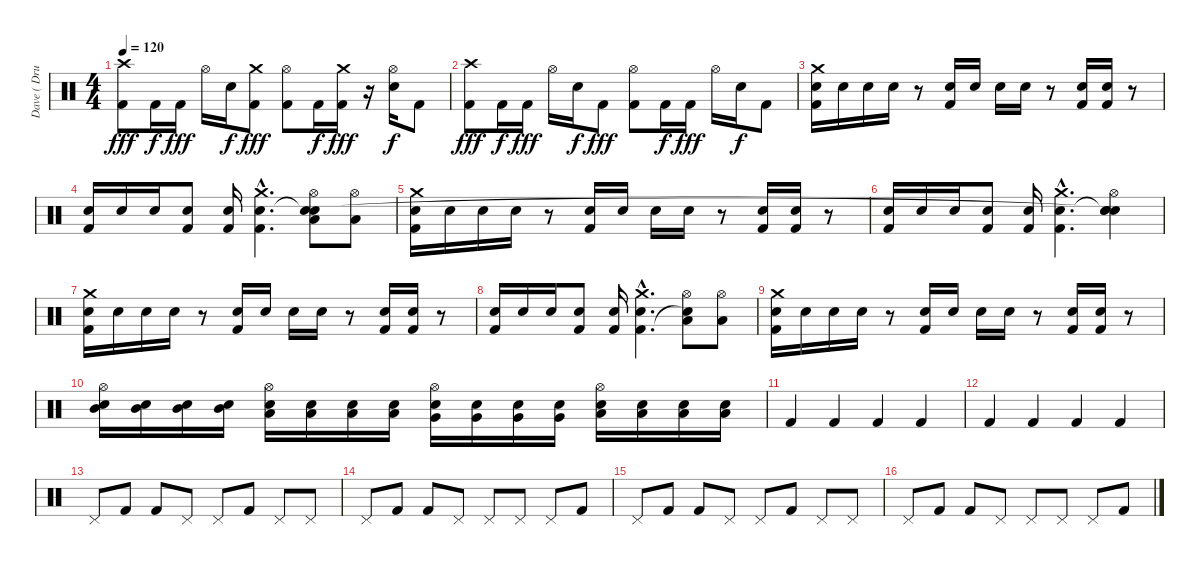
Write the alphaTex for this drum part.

\track ("Dave ( Drumm )" "Dave ( Dru") {instrument percussion}
\staff {score}
\articulation defaults
\ts (4 4)
\tempo 120
\clef neutral
\ks c
("Crash high (hit)" "Kick (hit) 2").8{dy fff} "Kick (hit) 2".16{dy f} "Kick (hit) 2".16{dy fff} "Hi-Hat (open)".16 "Snare (hit) 2".16{dy f} ("Crash medium (hit)" "Kick (hit) 2").8{dy fff} ("Hi-Hat (open)" "Kick (hit) 2").8 "Kick (hit) 2".16{dy f} ("Crash medium (hit)" "Kick (hit) 2").16{dy fff} r.16 ("Hi-Hat (open)" "Snare (hit) 2").16{dy f} "Kick (hit) 2".8 |
("Crash high (hit)" "Kick (hit) 2").8{dy fff} "Kick (hit) 2".16{dy f} "Kick (hit) 2".16{dy fff} "Hi-Hat (open)".16 "Snare (hit) 2".16{dy f} "Kick (hit) 2".8{dy fff} ("Hi-Hat (open)" "Kick (hit) 2").8 "Kick (hit) 2".16{dy f} "Kick (hit) 2".16{dy fff} "Hi-Hat (open)".16 "Snare (hit) 2".16{dy f} "Kick (hit) 2".8 |
("Crash medium (hit)" "Snare (hit) 2" "Kick (hit) 2").16 "Snare (hit) 2".16 "Snare (hit) 2".16 "Snare (hit) 2".16 r.8 ("Snare (hit) 2" "Kick (hit) 2").16 "Snare (hit) 2".16 "Snare (hit) 2".16 "Snare (hit) 2".16 r.8 ("Snare (hit) 2" "Kick (hit) 2").16 ("Snare (hit) 2" "Kick (hit) 2").16 r.8 |
("Snare (hit) 2" "Kick (hit) 2").16 "Snare (hit) 2".16 "Snare (hit) 2".16 ("Snare (hit) 2" "Kick (hit) 2").8 ("Snare (hit) 2" "Kick (hit) 2").16 ("Crash medium (hit)"{hac} "Snare (hit) 2"{hac} "Kick (hit) 2"{hac}).4{d} ("Hi-Hat (open)" "Snare (hit)"{t} "Low Floor Tom (hit)" "Snare (hit)").8 ("Hi-Hat (open)" "Low Floor Tom (hit)").8 |
("Crash medium (hit)" "Snare (hit) 2" "Kick (hit) 2").16 "Snare (hit) 2".16 "Snare (hit) 2".16 "Snare (hit) 2".16 r.8 ("Snare (hit) 2" "Kick (hit) 2").16 "Snare (hit) 2".16 "Snare (hit) 2".16 "Snare (hit) 2".16 r.8 ("Snare (hit) 2" "Kick (hit) 2").16 ("Snare (hit) 2" "Kick (hit) 2").16 r.8 |
("Snare (hit) 2" "Kick (hit) 2").16 "Snare (hit) 2".16 "Snare (hit) 2".16 ("Snare (hit) 2" "Kick (hit) 2").8 ("Snare (hit) 2" "Kick (hit) 2").16 ("Crash medium (hit)"{hac} "Snare (hit) 2"{hac} "Kick (hit) 2"{hac}).4{d} ("Hi-Hat (open)" "Snare (hit)"{t} "Snare (hit) 2" "Snare (hit)"{t}).4 |
("Crash medium (hit)" "Snare (hit) 2" "Kick (hit) 2").16 "Snare (hit) 2".16 "Snare (hit) 2".16 "Snare (hit) 2".16 r.8 ("Snare (hit) 2" "Kick (hit) 2").16 "Snare (hit) 2".16 "Snare (hit) 2".16 "Snare (hit) 2".16 r.8 ("Snare (hit) 2" "Kick (hit) 2").16 ("Snare (hit) 2" "Kick (hit) 2").16 r.8 |
("Snare (hit) 2" "Kick (hit) 2").16 "Snare (hit) 2".16 "Snare (hit) 2".16 ("Snare (hit) 2" "Kick (hit) 2").8 ("Snare (hit) 2" "Kick (hit) 2").16 ("Crash medium (hit)"{hac} "Snare (hit) 2"{hac} "Kick (hit) 2"{hac}).4{d} ("Hi-Hat (open)" "Low Floor Tom (hit)" "Snare (hit)"{t}).8 ("Hi-Hat (open)" "Low Floor Tom (hit)").8 |
("Crash medium (hit)" "Snare (hit) 2" "Kick (hit) 2").16 "Snare (hit) 2".16 "Snare (hit) 2".16 "Snare (hit) 2".16 r.8 ("Snare (hit) 2" "Kick (hit) 2").16 "Snare (hit) 2".16 "Snare (hit) 2".16 "Snare (hit) 2".16 r.8 ("Snare (hit) 2" "Kick (hit) 2").16 ("Snare (hit) 2" "Kick (hit) 2").16 r.8 |
("Hi-Hat (open)" "Snare (hit) 2" "Mid Tom (hit)").16 ("Snare (hit) 2" "Mid Tom (hit)").16 ("Snare (hit) 2" "Mid Tom (hit)").16 ("Snare (hit) 2" "Mid Tom (hit)").16 ("Hi-Hat (open)" "Snare (hit) 2" "Low Tom (hit)").16 ("Snare (hit) 2" "Low Tom (hit)").16 ("Snare (hit) 2" "Low Tom (hit)").16 ("Snare (hit) 2" "Low Tom (hit)").16 ("Hi-Hat (open)" "Snare (hit) 2" "Very Low Tom (hit)").16 ("Snare (hit) 2" "Very Low Tom (hit)").16 ("Snare (hit) 2" "Very Low Tom (hit)").16 ("Snare (hit) 2" "Very Low Tom (hit)").16 ("Hi-Hat (open)" "Snare (hit) 2" "Low Floor Tom (hit)").16 ("Snare (hit) 2" "Low Floor Tom (hit)").16 ("Snare (hit) 2" "Low Floor Tom (hit)").16 ("Snare (hit) 2" "Low Floor Tom (hit)").16 |
"Kick (hit) 2".4 "Kick (hit) 2".4 "Kick (hit) 2".4 "Kick (hit) 2".4 |
"Kick (hit) 2".4 "Kick (hit) 2".4 "Kick (hit) 2".4 "Kick (hit) 2".4 |
"Pedal Hi-Hat (hit)".8 "Kick (hit) 2".8 "Kick (hit) 2".8 "Pedal Hi-Hat (hit)".8 "Pedal Hi-Hat (hit)".8 "Kick (hit) 2".8 "Pedal Hi-Hat (hit)".8 "Pedal Hi-Hat (hit)".8 |
"Pedal Hi-Hat (hit)".8 "Kick (hit) 2".8 "Kick (hit) 2".8 "Pedal Hi-Hat (hit)".8 "Pedal Hi-Hat (hit)".8 "Pedal Hi-Hat (hit)".8 "Pedal Hi-Hat (hit)".8 "Kick (hit) 2".8 |
"Pedal Hi-Hat (hit)".8 "Kick (hit) 2".8 "Kick (hit) 2".8 "Pedal Hi-Hat (hit)".8 "Pedal Hi-Hat (hit)".8 "Kick (hit) 2".8 "Pedal Hi-Hat (hit)".8 "Pedal Hi-Hat (hit)".8 |
"Pedal Hi-Hat (hit)".8 "Kick (hit) 2".8 "Kick (hit) 2".8 "Pedal Hi-Hat (hit)".8 "Pedal Hi-Hat (hit)".8 "Pedal Hi-Hat (hit)".8 "Pedal Hi-Hat (hit)".8 "Kick (hit) 2".8
